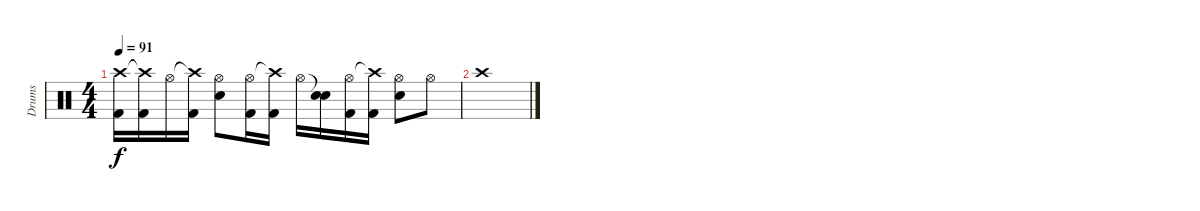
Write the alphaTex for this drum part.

\track ("Drums" "Drums") {instrument percussion}
\staff {score}
\articulation defaults
\ts (4 4)
\tempo 91
\clef neutral
\ks c
("Crash high (hit)" "Kick (hit) 2").16{dy f volume 2} ("Crash high (hit)"{t} "Kick (hit) 2").16 "Hi-Hat (open)".16 ("Crash high (hit)"{t} "Kick (hit) 2").16 ("Hi-Hat (open)" "Electric Snare (hit)").8 ("Hi-Hat (open)" "Kick (hit) 2").16 ("Crash high (hit)"{t} "Kick (hit) 2").16 "Hi-Hat (open)".16 ("Snare (hit)"{t} "Electric Snare (hit)").16 ("Hi-Hat (open)" "Kick (hit) 2").16 ("Crash high (hit)"{t} "Kick (hit) 2").16 ("Hi-Hat (open)" "Electric Snare (hit)").8 "Hi-Hat (open)".8 |
"Crash high (hit)".1{volume 2}
